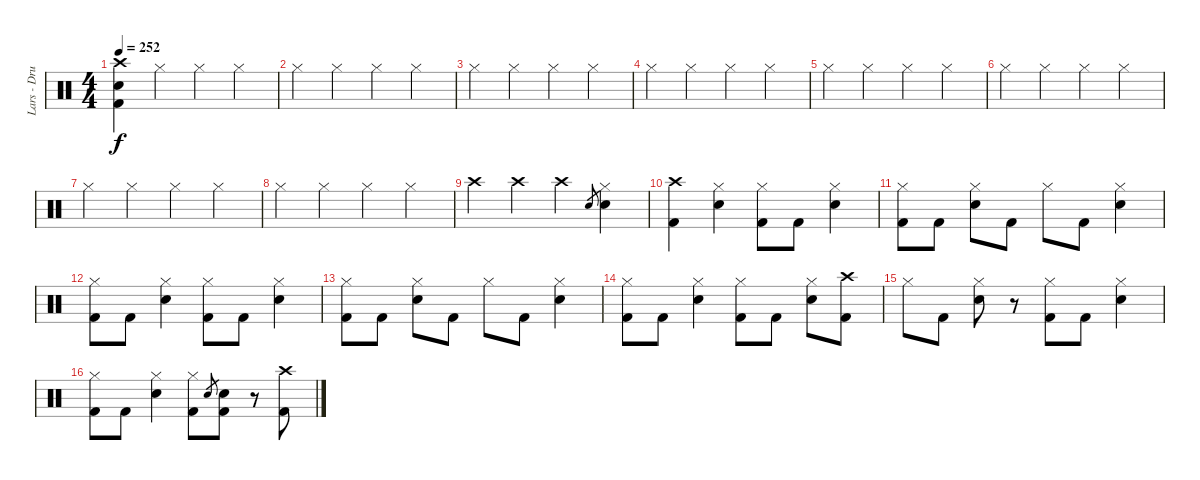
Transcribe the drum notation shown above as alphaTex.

\track ("Lars - Drums" "Lars - Dru") {instrument percussion}
\staff {score}
\articulation defaults
\ts (4 4)
\tempo 252
\clef neutral
\ks c
("Crash high (hit)" "Electric Snare (hit)" "Kick (hit) 2").4{dy f} "Hi-Hat (closed)".4 "Hi-Hat (closed)".4 "Hi-Hat (closed)".4 |
"Hi-Hat (closed)".4 "Hi-Hat (closed)".4 "Hi-Hat (closed)".4 "Hi-Hat (closed)".4 |
"Hi-Hat (closed)".4 "Hi-Hat (closed)".4 "Hi-Hat (closed)".4 "Hi-Hat (closed)".4 |
"Hi-Hat (closed)".4 "Hi-Hat (closed)".4 "Hi-Hat (closed)".4 "Hi-Hat (closed)".4 |
"Hi-Hat (closed)".4 "Hi-Hat (closed)".4 "Hi-Hat (closed)".4 "Hi-Hat (closed)".4 |
"Hi-Hat (closed)".4 "Hi-Hat (closed)".4 "Hi-Hat (closed)".4 "Hi-Hat (closed)".4 |
"Hi-Hat (closed)".4 "Hi-Hat (closed)".4 "Hi-Hat (closed)".4 "Hi-Hat (closed)".4 |
"Hi-Hat (closed)".4 "Hi-Hat (closed)".4 "Hi-Hat (closed)".4 "Hi-Hat (closed)".4 |
"Crash high (hit)".4 "Crash high (hit)".4 "Crash high (hit)".4 "Electric Snare (hit)".8{gr} ("Hi-Hat (closed)" "Electric Snare (hit)").4 |
("Crash high (hit)" "Kick (hit) 2").4 ("Hi-Hat (closed)" "Electric Snare (hit)").4 ("Hi-Hat (closed)" "Kick (hit) 2").8 "Kick (hit) 2".8 ("Hi-Hat (closed)" "Electric Snare (hit)").4 |
("Hi-Hat (closed)" "Kick (hit) 2").8 "Kick (hit) 2".8 ("Hi-Hat (closed)" "Electric Snare (hit)").8 "Kick (hit) 2".8 "Hi-Hat (closed)".8 "Kick (hit) 2".8 ("Hi-Hat (closed)" "Electric Snare (hit)").4 |
("Hi-Hat (closed)" "Kick (hit) 2").8 "Kick (hit) 2".8 ("Hi-Hat (closed)" "Electric Snare (hit)").4 ("Hi-Hat (closed)" "Kick (hit) 2").8 "Kick (hit) 2".8 ("Hi-Hat (closed)" "Electric Snare (hit)").4 |
("Hi-Hat (closed)" "Kick (hit) 2").8 "Kick (hit) 2".8 ("Hi-Hat (closed)" "Electric Snare (hit)").8 "Kick (hit) 2".8 "Hi-Hat (closed)".8 "Kick (hit) 2".8 ("Hi-Hat (closed)" "Electric Snare (hit)").4 |
("Hi-Hat (closed)" "Kick (hit) 2").8 "Kick (hit) 2".8 ("Hi-Hat (closed)" "Electric Snare (hit)").4 ("Hi-Hat (closed)" "Kick (hit) 2").8 "Kick (hit) 2".8 ("Hi-Hat (closed)" "Electric Snare (hit)").8 ("Crash high (hit)" "Kick (hit) 2").8 |
"Hi-Hat (closed)".8 "Kick (hit) 2".8 ("Hi-Hat (closed)" "Electric Snare (hit)").8 r.8 ("Hi-Hat (closed)" "Kick (hit) 2").8 "Kick (hit) 2".8 ("Hi-Hat (closed)" "Electric Snare (hit)").4 |
("Hi-Hat (closed)" "Kick (hit) 2").8 "Kick (hit) 2".8 ("Hi-Hat (closed)" "Electric Snare (hit)").4 ("Hi-Hat (closed)" "Kick (hit) 2").8 "Electric Snare (hit)".8{gr} ("Electric Snare (hit)" "Kick (hit) 2").8 r.8 ("Crash high (hit)" "Kick (hit) 2").8
